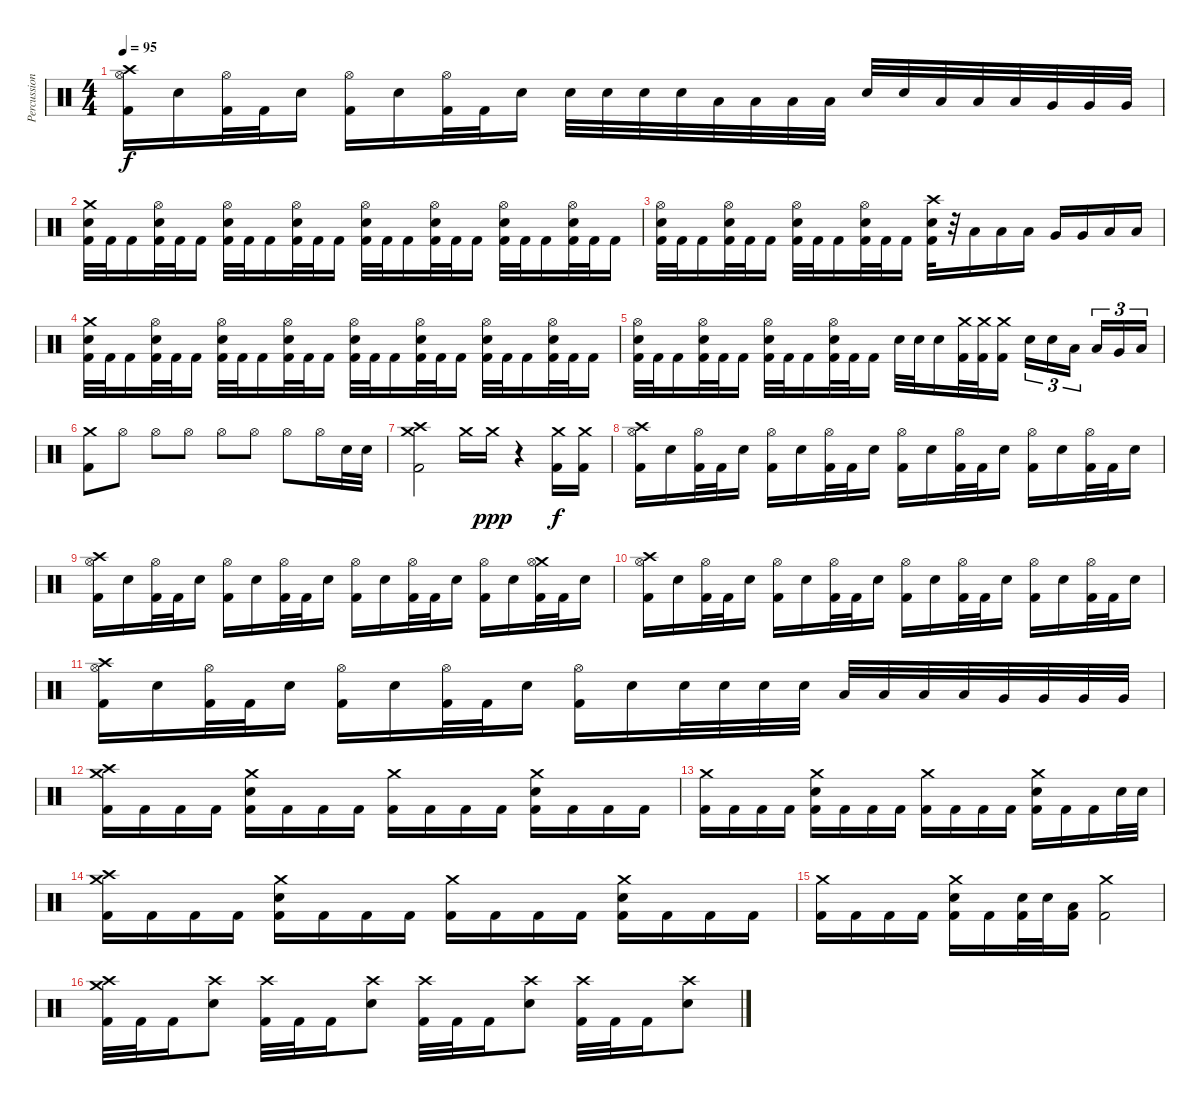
\track ("Percussion" "Percussion") {instrument percussion}
\staff {score}
\articulation defaults
\ts (4 4)
\tempo 95
\clef neutral
\ks c
("Crash high (hit)" "Hi-Hat (open)" "Kick (hit) 2").16{dy f} "Electric Snare (hit)".16 ("Hi-Hat (open)" "Kick (hit) 2").32 "Kick (hit) 2".32 "Electric Snare (hit)".16 ("Hi-Hat (open)" "Kick (hit) 2").16 "Electric Snare (hit)".16 ("Hi-Hat (open)" "Kick (hit) 2").32 "Kick (hit) 2".32 "Electric Snare (hit)".16 "Electric Snare (hit)".32 "Electric Snare (hit)".32 "Electric Snare (hit)".32 "Electric Snare (hit)".32 "Low Tom (hit)".32 "Low Tom (hit)".32 "Low Tom (hit)".32 "Low Tom (hit)".32 "Electric Snare (hit)".32 "Electric Snare (hit)".32 "Low Tom (hit)".32 "Low Tom (hit)".32 "Low Tom (hit)".32 "Very Low Tom (hit)".32 "Very Low Tom (hit)".32 "Very Low Tom (hit)".32 |
("Crash medium (hit)" "Electric Snare (hit)" "Kick (hit) 2").32 "Kick (hit) 2".32 "Kick (hit) 2".16 ("Hi-Hat (open)" "Electric Snare (hit)" "Kick (hit) 2").32 "Kick (hit) 2".32 "Kick (hit) 2".16 ("Hi-Hat (open)" "Electric Snare (hit)" "Kick (hit) 2").32 "Kick (hit) 2".32 "Kick (hit) 2".16 ("Hi-Hat (open)" "Electric Snare (hit)" "Kick (hit) 2").32 "Kick (hit) 2".32 "Kick (hit) 2".16 ("Hi-Hat (open)" "Electric Snare (hit)" "Kick (hit) 2").32 "Kick (hit) 2".32 "Kick (hit) 2".16 ("Hi-Hat (open)" "Electric Snare (hit)" "Kick (hit) 2").32 "Kick (hit) 2".32 "Kick (hit) 2".16 ("Hi-Hat (open)" "Electric Snare (hit)" "Kick (hit) 2").32 "Kick (hit) 2".32 "Kick (hit) 2".16 ("Hi-Hat (open)" "Electric Snare (hit)" "Kick (hit) 2").32 "Kick (hit) 2".32 "Kick (hit) 2".16 |
("Hi-Hat (open)" "Electric Snare (hit)" "Kick (hit) 2").32 "Kick (hit) 2".32 "Kick (hit) 2".16 ("Hi-Hat (open)" "Electric Snare (hit)" "Kick (hit) 2").32 "Kick (hit) 2".32 "Kick (hit) 2".16 ("Hi-Hat (open)" "Electric Snare (hit)" "Kick (hit) 2").32 "Kick (hit) 2".32 "Kick (hit) 2".16 ("Hi-Hat (open)" "Electric Snare (hit)" "Kick (hit) 2").32 "Kick (hit) 2".32 "Kick (hit) 2".16 ("Crash high (hit)" "Electric Snare (hit)" "Kick (hit) 2").32 r.32 "Low Tom (hit)".16 "Low Tom (hit)".16 "Low Tom (hit)".16 "Very Low Tom (hit)".16 "Very Low Tom (hit)".16 "Low Floor Tom (hit)".16 "Low Floor Tom (hit)".16 |
("Crash medium (hit)" "Electric Snare (hit)" "Kick (hit) 2").32 "Kick (hit) 2".32 "Kick (hit) 2".16 ("Hi-Hat (open)" "Electric Snare (hit)" "Kick (hit) 2").32 "Kick (hit) 2".32 "Kick (hit) 2".16 ("Hi-Hat (open)" "Electric Snare (hit)" "Kick (hit) 2").32 "Kick (hit) 2".32 "Kick (hit) 2".16 ("Hi-Hat (open)" "Electric Snare (hit)" "Kick (hit) 2").32 "Kick (hit) 2".32 "Kick (hit) 2".16 ("Hi-Hat (open)" "Electric Snare (hit)" "Kick (hit) 2").32 "Kick (hit) 2".32 "Kick (hit) 2".16 ("Hi-Hat (open)" "Electric Snare (hit)" "Kick (hit) 2").32 "Kick (hit) 2".32 "Kick (hit) 2".16 ("Hi-Hat (open)" "Electric Snare (hit)" "Kick (hit) 2").32 "Kick (hit) 2".32 "Kick (hit) 2".16 ("Hi-Hat (open)" "Electric Snare (hit)" "Kick (hit) 2").32 "Kick (hit) 2".32 "Kick (hit) 2".16 |
("Hi-Hat (open)" "Electric Snare (hit)" "Kick (hit) 2").32 "Kick (hit) 2".32 "Kick (hit) 2".16 ("Hi-Hat (open)" "Electric Snare (hit)" "Kick (hit) 2").32 "Kick (hit) 2".32 "Kick (hit) 2".16 ("Hi-Hat (open)" "Electric Snare (hit)" "Kick (hit) 2").32 "Kick (hit) 2".32 "Kick (hit) 2".16 ("Hi-Hat (open)" "Electric Snare (hit)" "Kick (hit) 2").32 "Kick (hit) 2".32 "Kick (hit) 2".16 "Electric Snare (hit)".32 "Electric Snare (hit)".32 "Electric Snare (hit)".16 ("Crash medium (hit)" "Kick (hit) 2").32 ("Crash medium (hit)" "Kick (hit) 2").32 ("Crash medium (hit)" "Kick (hit) 2").16 "Electric Snare (hit)".16{tu (3 2)} "Electric Snare (hit)".16{tu (3 2)} "Low Tom (hit)".16{tu (3 2) beam splitsecondary} "Low Tom (hit)".16{tu (3 2)} "Very Low Tom (hit)".16{tu (3 2)} "Low Floor Tom (hit)".16{tu (3 2)} |
("Crash medium (hit)" "Kick (hit) 2").8 "Hi-Hat (open)".8 "Hi-Hat (open)".8 "Hi-Hat (open)".8 "Hi-Hat (open)".8 "Hi-Hat (open)".8 "Hi-Hat (open)".8 "Hi-Hat (open)".16 "Electric Snare (hit)".32 "Electric Snare (hit)".32 |
("Crash medium (hit)" "Crash high (hit)" "Kick (hit) 2").2 "Crash medium (hit)".16 "Crash medium (hit)".16{dy ppp} r.4 ("Crash medium (hit)" "Kick (hit) 2").16{dy f} ("Crash medium (hit)" "Kick (hit) 2").16 |
("Crash high (hit)" "Hi-Hat (open)" "Kick (hit) 2").16 "Electric Snare (hit)".16 ("Hi-Hat (open)" "Kick (hit) 2").32 "Kick (hit) 2".32 "Electric Snare (hit)".16 ("Hi-Hat (open)" "Kick (hit) 2").16 "Electric Snare (hit)".16 ("Hi-Hat (open)" "Kick (hit) 2").32 "Kick (hit) 2".32 "Electric Snare (hit)".16 ("Hi-Hat (open)" "Kick (hit) 2").16 "Electric Snare (hit)".16 ("Hi-Hat (open)" "Kick (hit) 2").32 "Kick (hit) 2".32 "Electric Snare (hit)".16 ("Hi-Hat (open)" "Kick (hit) 2").16 "Electric Snare (hit)".16 ("Hi-Hat (open)" "Kick (hit) 2").32 "Kick (hit) 2".32 "Electric Snare (hit)".16 |
("Crash high (hit)" "Hi-Hat (open)" "Kick (hit) 2").16 "Electric Snare (hit)".16 ("Hi-Hat (open)" "Kick (hit) 2").32 "Kick (hit) 2".32 "Electric Snare (hit)".16 ("Hi-Hat (open)" "Kick (hit) 2").16 "Electric Snare (hit)".16 ("Hi-Hat (open)" "Kick (hit) 2").32 "Kick (hit) 2".32 "Electric Snare (hit)".16 ("Hi-Hat (open)" "Kick (hit) 2").16 "Electric Snare (hit)".16 ("Hi-Hat (open)" "Kick (hit) 2").32 "Kick (hit) 2".32 "Electric Snare (hit)".16 ("Hi-Hat (open)" "Kick (hit) 2").16 "Electric Snare (hit)".16 ("Crash medium (hit)" "Hi-Hat (open)" "Kick (hit) 2").32 "Kick (hit) 2".32 "Electric Snare (hit)".16 |
("Crash high (hit)" "Hi-Hat (open)" "Kick (hit) 2").16 "Electric Snare (hit)".16 ("Hi-Hat (open)" "Kick (hit) 2").32 "Kick (hit) 2".32 "Electric Snare (hit)".16 ("Hi-Hat (open)" "Kick (hit) 2").16 "Electric Snare (hit)".16 ("Hi-Hat (open)" "Kick (hit) 2").32 "Kick (hit) 2".32 "Electric Snare (hit)".16 ("Hi-Hat (open)" "Kick (hit) 2").16 "Electric Snare (hit)".16 ("Hi-Hat (open)" "Kick (hit) 2").32 "Kick (hit) 2".32 "Electric Snare (hit)".16 ("Hi-Hat (open)" "Kick (hit) 2").16 "Electric Snare (hit)".16 ("Hi-Hat (open)" "Kick (hit) 2").32 "Kick (hit) 2".32 "Electric Snare (hit)".16 |
("Crash high (hit)" "Hi-Hat (open)" "Kick (hit) 2").16 "Electric Snare (hit)".16 ("Hi-Hat (open)" "Kick (hit) 2").32 "Kick (hit) 2".32 "Electric Snare (hit)".16 ("Hi-Hat (open)" "Kick (hit) 2").16 "Electric Snare (hit)".16 ("Hi-Hat (open)" "Kick (hit) 2").32 "Kick (hit) 2".32 "Electric Snare (hit)".16 ("Hi-Hat (open)" "Kick (hit) 2").16 "Electric Snare (hit)".16 "Electric Snare (hit)".32 "Electric Snare (hit)".32 "Electric Snare (hit)".32 "Electric Snare (hit)".32 "Low Tom (hit)".32 "Low Tom (hit)".32 "Low Tom (hit)".32 "Low Tom (hit)".32 "Very Low Tom (hit)".32 "Very Low Tom (hit)".32 "Very Low Tom (hit)".32 "Very Low Tom (hit)".32 |
("Crash high (hit)" "Crash medium (hit)" "Kick (hit) 2").16 "Kick (hit) 2".16 "Kick (hit) 2".16 "Kick (hit) 2".16 ("Crash medium (hit)" "Electric Snare (hit)" "Kick (hit) 2").16 "Kick (hit) 2".16 "Kick (hit) 2".16 "Kick (hit) 2".16 ("Crash medium (hit)" "Kick (hit) 2").16 "Kick (hit) 2".16 "Kick (hit) 2".16 "Kick (hit) 2".16 ("Crash medium (hit)" "Electric Snare (hit)" "Kick (hit) 2").16 "Kick (hit) 2".16 "Kick (hit) 2".16 "Kick (hit) 2".16 |
("Crash medium (hit)" "Kick (hit) 2").16 "Kick (hit) 2".16 "Kick (hit) 2".16 "Kick (hit) 2".16 ("Crash medium (hit)" "Electric Snare (hit)" "Kick (hit) 2").16 "Kick (hit) 2".16 "Kick (hit) 2".16 "Kick (hit) 2".16 ("Crash medium (hit)" "Kick (hit) 2").16 "Kick (hit) 2".16 "Kick (hit) 2".16 "Kick (hit) 2".16 ("Crash medium (hit)" "Electric Snare (hit)" "Kick (hit) 2").16 "Kick (hit) 2".16 "Kick (hit) 2".16 "Electric Snare (hit)".32 "Electric Snare (hit)".32 |
("Crash high (hit)" "Crash medium (hit)" "Kick (hit) 2").16 "Kick (hit) 2".16 "Kick (hit) 2".16 "Kick (hit) 2".16 ("Crash medium (hit)" "Electric Snare (hit)" "Kick (hit) 2").16 "Kick (hit) 2".16 "Kick (hit) 2".16 "Kick (hit) 2".16 ("Crash medium (hit)" "Kick (hit) 2").16 "Kick (hit) 2".16 "Kick (hit) 2".16 "Kick (hit) 2".16 ("Crash medium (hit)" "Electric Snare (hit)" "Kick (hit) 2").16 "Kick (hit) 2".16 "Kick (hit) 2".16 "Kick (hit) 2".16 |
("Crash medium (hit)" "Kick (hit) 2").16 "Kick (hit) 2".16 "Kick (hit) 2".16 "Kick (hit) 2".16 ("Crash medium (hit)" "Electric Snare (hit)" "Kick (hit) 2").16 "Kick (hit) 2".16 ("Electric Snare (hit)" "Kick (hit) 2").32 "Electric Snare (hit)".32 ("Low Tom (hit)" "Kick (hit) 2").16 ("Crash medium (hit)" "Kick (hit) 2").2 |
("Crash medium (hit)" "Crash high (hit)" "Kick (hit) 2").32 "Kick (hit) 2".32 "Kick (hit) 2".16 ("Crash high (hit)" "Electric Snare (hit)").8 ("Crash high (hit)" "Kick (hit) 2").32 "Kick (hit) 2".32 "Kick (hit) 2".16 ("Crash high (hit)" "Electric Snare (hit)").8 ("Crash high (hit)" "Kick (hit) 2").32 "Kick (hit) 2".32 "Kick (hit) 2".16 ("Crash high (hit)" "Electric Snare (hit)").8 ("Crash high (hit)" "Kick (hit) 2").32 "Kick (hit) 2".32 "Kick (hit) 2".16 ("Crash high (hit)" "Electric Snare (hit)").8
